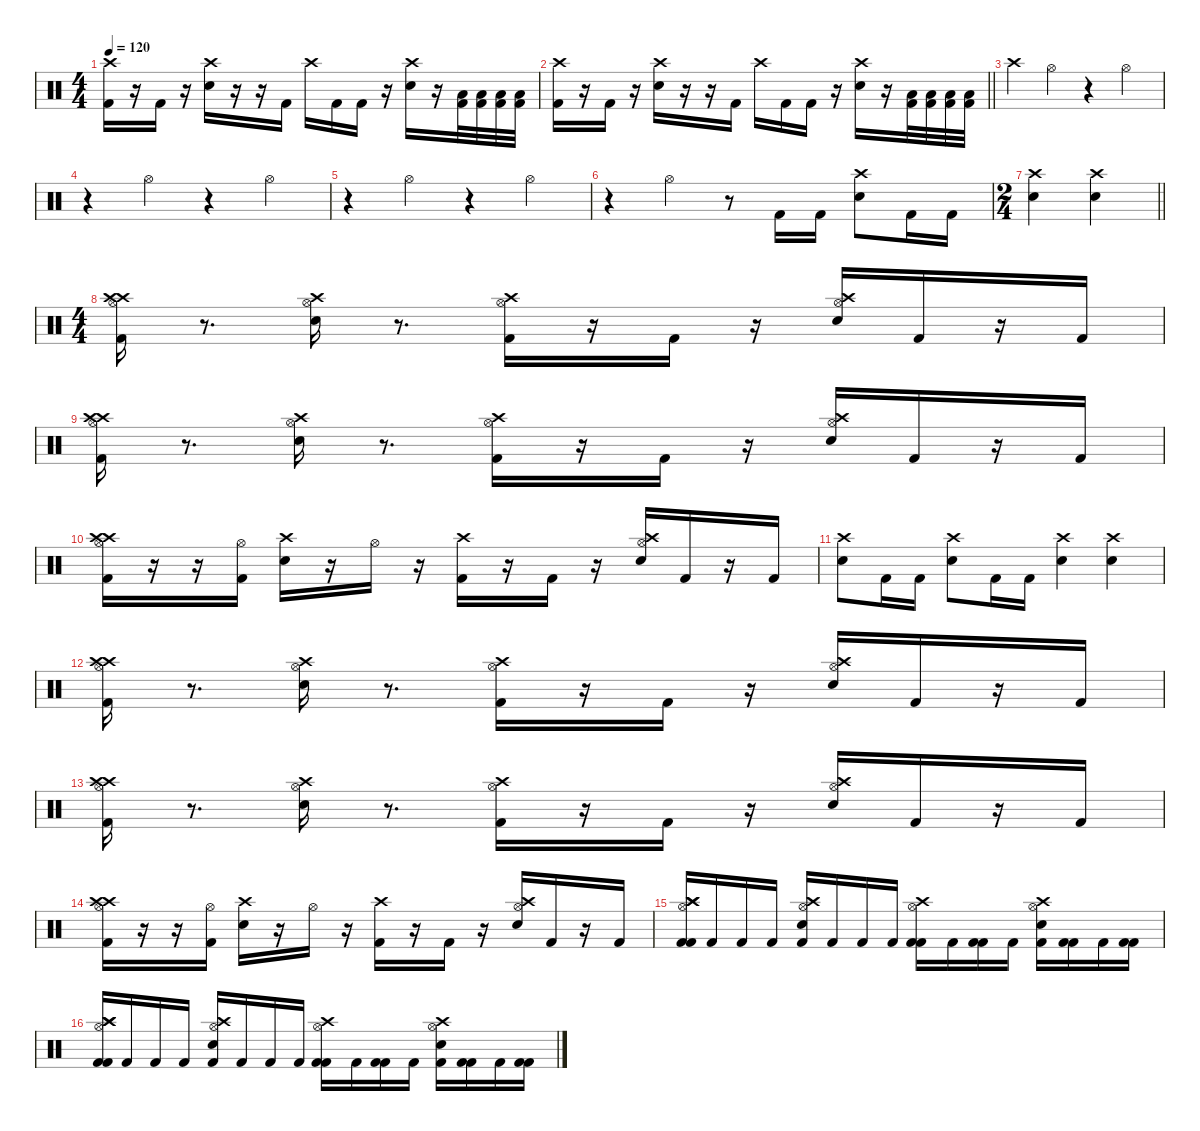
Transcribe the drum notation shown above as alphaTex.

\defaultSystemsLayout 4
\hideDynamics
\bracketExtendMode nobrackets
\singleTrackTrackNamePolicy hidden
\multiTrackTrackNamePolicy hidden
\firstSystemTrackNameMode fullname
\firstSystemTrackNameOrientation horizontal
\otherSystemsTrackNameOrientation horizontal
\track ("DRUMS" "drm.") {defaultSystemsLayout 4 instrument percussion}
\staff {score}
\articulation defaults
\ts (4 4)
\tempo 120
\clef neutral
\ks c
("Crash high (hit)" "Kick (hit) 2").16{dy f beam Down} r.16{beam Down} "Kick (hit) 2".16{beam Down} r.16{beam Down} ("Crash high (hit)" "Snare (hit) 2").16{beam Down} r.16{beam Down} r.16{beam Down} "Kick (hit) 2".16{beam Down} "Crash high (hit)".16{beam Down} "Kick (hit) 2".16{beam Down} "Kick (hit) 2".16{beam Down} r.16{beam Down} ("Crash high (hit)" "Snare (hit) 2").16{beam Down} r.16{beam Down} ("Low Tom (hit)" "Kick (hit) 2").32{beam Down} ("Low Tom (hit)" "Kick (hit) 2").32{beam Down} ("Low Tom (hit)" "Kick (hit) 2").32{beam Down} ("Low Tom (hit)" "Kick (hit) 2").32{beam Down} |
\barLineRight lightlight
("Crash high (hit)" "Kick (hit) 2").16{beam Down} r.16{beam Down} "Kick (hit) 2".16{beam Down} r.16{beam Down} ("Crash high (hit)" "Snare (hit) 2").16{beam Down} r.16{beam Down} r.16{beam Down} "Kick (hit) 2".16{beam Down} "Crash high (hit)".16{beam Down} "Kick (hit) 2".16{beam Down} "Kick (hit) 2".16{beam Down} r.16{beam Down} ("Crash high (hit)" "Snare (hit) 2").16{beam Down} r.16{beam Down} ("Low Tom (hit)" "Kick (hit) 2").32{beam Down} ("Low Tom (hit)" "Kick (hit) 2").32{beam Down} ("Low Tom (hit)" "Kick (hit) 2").32{beam Down} ("Low Tom (hit)" "Kick (hit) 2").32{beam Down} |
"Crash high (hit)".4{beam Down} "Hi-Hat (open)".4{beam Down} r.4{beam Down} "Hi-Hat (open)".4{beam Down} |
r.4{beam Down} "Hi-Hat (open)".4{beam Down} r.4{beam Down} "Hi-Hat (open)".4{beam Down} |
r.4{beam Down} "Hi-Hat (open)".4{beam Down} r.4{beam Down} "Hi-Hat (open)".4{beam Down} |
r.4{beam Down} "Hi-Hat (open)".4{beam Down} r.8{beam Down} "Kick (hit) 2".16{beam Up} "Kick (hit) 2".16{beam Up} ("Crash high (hit)" "Snare (hit) 2").8{beam Down} "Kick (hit) 2".16{beam Down} "Kick (hit) 2".16{beam Down} |
\ts (2 4)
\beaming (8 2 2)
\barLineRight lightlight
("Crash high (hit)" "Snare (hit) 2").4{beam Down} ("Crash high (hit)" "Snare (hit) 2").4{beam Down} |
\ts (4 4)
\beaming (8 2 2 2 2)
("Crash high (hit)" "Kick (hit) 2" "Hi-Hat (open)" "Crash high (hit)").16{beam Down} r.8{d beam Down} ("Crash high (hit)" "Snare (hit) 2" "Hi-Hat (open)").16{beam Down} r.8{d beam Down} ("Crash high (hit)" "Kick (hit) 2" "Hi-Hat (open)").16{beam Down} r.16{beam Down} "Kick (hit) 2".16{beam Down} r.16{beam Down} ("Crash high (hit)" "Snare (hit) 2" "Hi-Hat (open)").16{beam Up} "Kick (hit) 2".16{beam Up} r.16{beam Up} "Kick (hit) 2".16{beam Up} |
("Crash high (hit)" "Kick (hit) 2" "Hi-Hat (open)" "Crash high (hit)").16{beam Down} r.8{d beam Down} ("Crash high (hit)" "Snare (hit) 2" "Hi-Hat (open)").16{beam Down} r.8{d beam Down} ("Crash high (hit)" "Kick (hit) 2" "Hi-Hat (open)").16{beam Down} r.16{beam Down} "Kick (hit) 2".16{beam Down} r.16{beam Down} ("Crash high (hit)" "Snare (hit) 2" "Hi-Hat (open)").16{beam Up} "Kick (hit) 2".16{beam Up} r.16{beam Up} "Kick (hit) 2".16{beam Up} |
("Crash high (hit)" "Kick (hit) 2" "Hi-Hat (open)" "Crash high (hit)").16{beam Down} r.16{beam Down} r.16{beam Down} ("Kick (hit) 2" "Hi-Hat (open)").16{beam Down} ("Crash high (hit)" "Snare (hit) 2").16{beam Down} r.16{beam Down} "Hi-Hat (open)".16{beam Down} r.16{beam Down} ("Crash high (hit)" "Kick (hit) 2").16{beam Down} r.16{beam Down} "Kick (hit) 2".16{beam Down} r.16{beam Down} ("Crash high (hit)" "Snare (hit) 2" "Hi-Hat (open)").16{beam Up} "Kick (hit) 2".16{beam Up} r.16{beam Up} "Kick (hit) 2".16{beam Up} |
("Snare (hit) 2" "Crash high (hit)").8{beam Down} "Kick (hit) 2".16{beam Down} "Kick (hit) 2".16{beam Down} ("Crash high (hit)" "Snare (hit) 2").8{beam Down} "Kick (hit) 2".16{beam Down} "Kick (hit) 2".16{beam Down} ("Crash high (hit)" "Snare (hit) 2").4{beam Down} ("Crash high (hit)" "Snare (hit) 2").4{beam Down} |
("Crash high (hit)" "Kick (hit) 2" "Hi-Hat (open)" "Crash high (hit)").16{beam Down} r.8{d beam Down} ("Crash high (hit)" "Snare (hit) 2" "Hi-Hat (open)").16{beam Down} r.8{d beam Down} ("Crash high (hit)" "Kick (hit) 2" "Hi-Hat (open)").16{beam Down} r.16{beam Down} "Kick (hit) 2".16{beam Down} r.16{beam Down} ("Crash high (hit)" "Snare (hit) 2" "Hi-Hat (open)").16{beam Up} "Kick (hit) 2".16{beam Up} r.16{beam Up} "Kick (hit) 2".16{beam Up} |
("Crash high (hit)" "Kick (hit) 2" "Hi-Hat (open)" "Crash high (hit)").16{beam Down} r.8{d beam Down} ("Crash high (hit)" "Snare (hit) 2" "Hi-Hat (open)").16{beam Down} r.8{d beam Down} ("Crash high (hit)" "Kick (hit) 2" "Hi-Hat (open)").16{beam Down} r.16{beam Down} "Kick (hit) 2".16{beam Down} r.16{beam Down} ("Crash high (hit)" "Snare (hit) 2" "Hi-Hat (open)").16{beam Up} "Kick (hit) 2".16{beam Up} r.16{beam Up} "Kick (hit) 2".16{beam Up} |
("Crash high (hit)" "Kick (hit) 2" "Hi-Hat (open)" "Crash high (hit)").16{beam Down} r.16{beam Down} r.16{beam Down} ("Kick (hit) 2" "Hi-Hat (open)").16{beam Down} ("Crash high (hit)" "Snare (hit) 2").16{beam Down} r.16{beam Down} "Hi-Hat (open)".16{beam Down} r.16{beam Down} ("Crash high (hit)" "Kick (hit) 2").16{beam Down} r.16{beam Down} "Kick (hit) 2".16{beam Down} r.16{beam Down} ("Crash high (hit)" "Snare (hit) 2" "Hi-Hat (open)").16{beam Up} "Kick (hit) 2".16{beam Up} r.16{beam Up} "Kick (hit) 2".16{beam Up} |
("Crash high (hit)" "Kick (hit) 2" "Hi-Hat (open)" "Crash high (hit)" "Kick (hit) 2").16{beam Up} "Kick (hit) 2".16{beam Up} "Kick (hit) 2".16{beam Up} "Kick (hit) 2".16{beam Up} ("Crash high (hit)" "Snare (hit) 2" "Hi-Hat (open)" "Kick (hit) 2").16{beam Up} "Kick (hit) 2".16{beam Up} "Kick (hit) 2".16{beam Up} "Kick (hit) 2".16{beam Up} ("Crash high (hit)" "Kick (hit) 2" "Hi-Hat (open)" "Kick (hit) 2").16{beam Down} "Kick (hit) 2".16{beam Down} ("Kick (hit) 2" "Kick (hit) 2").16{beam Down} "Kick (hit) 2".16{beam Down} ("Crash high (hit)" "Snare (hit) 2" "Hi-Hat (open)" "Kick (hit) 2").16{beam Down} ("Kick (hit) 2" "Kick (hit) 2").16{beam Down} "Kick (hit) 2".16{beam Down} ("Kick (hit) 2" "Kick (hit) 2").16{beam Down} |
("Crash high (hit)" "Kick (hit) 2" "Hi-Hat (open)" "Crash high (hit)" "Kick (hit) 2").16{beam Up} "Kick (hit) 2".16{beam Up} "Kick (hit) 2".16{beam Up} "Kick (hit) 2".16{beam Up} ("Crash high (hit)" "Snare (hit) 2" "Hi-Hat (open)" "Kick (hit) 2").16{beam Up} "Kick (hit) 2".16{beam Up} "Kick (hit) 2".16{beam Up} "Kick (hit) 2".16{beam Up} ("Crash high (hit)" "Kick (hit) 2" "Hi-Hat (open)" "Kick (hit) 2").16{beam Down} "Kick (hit) 2".16{beam Down} ("Kick (hit) 2" "Kick (hit) 2").16{beam Down} "Kick (hit) 2".16{beam Down} ("Crash high (hit)" "Snare (hit) 2" "Hi-Hat (open)" "Kick (hit) 2").16{beam Down} ("Kick (hit) 2" "Kick (hit) 2").16{beam Down} "Kick (hit) 2".16{beam Down} ("Kick (hit) 2" "Kick (hit) 2").16{beam Down}
